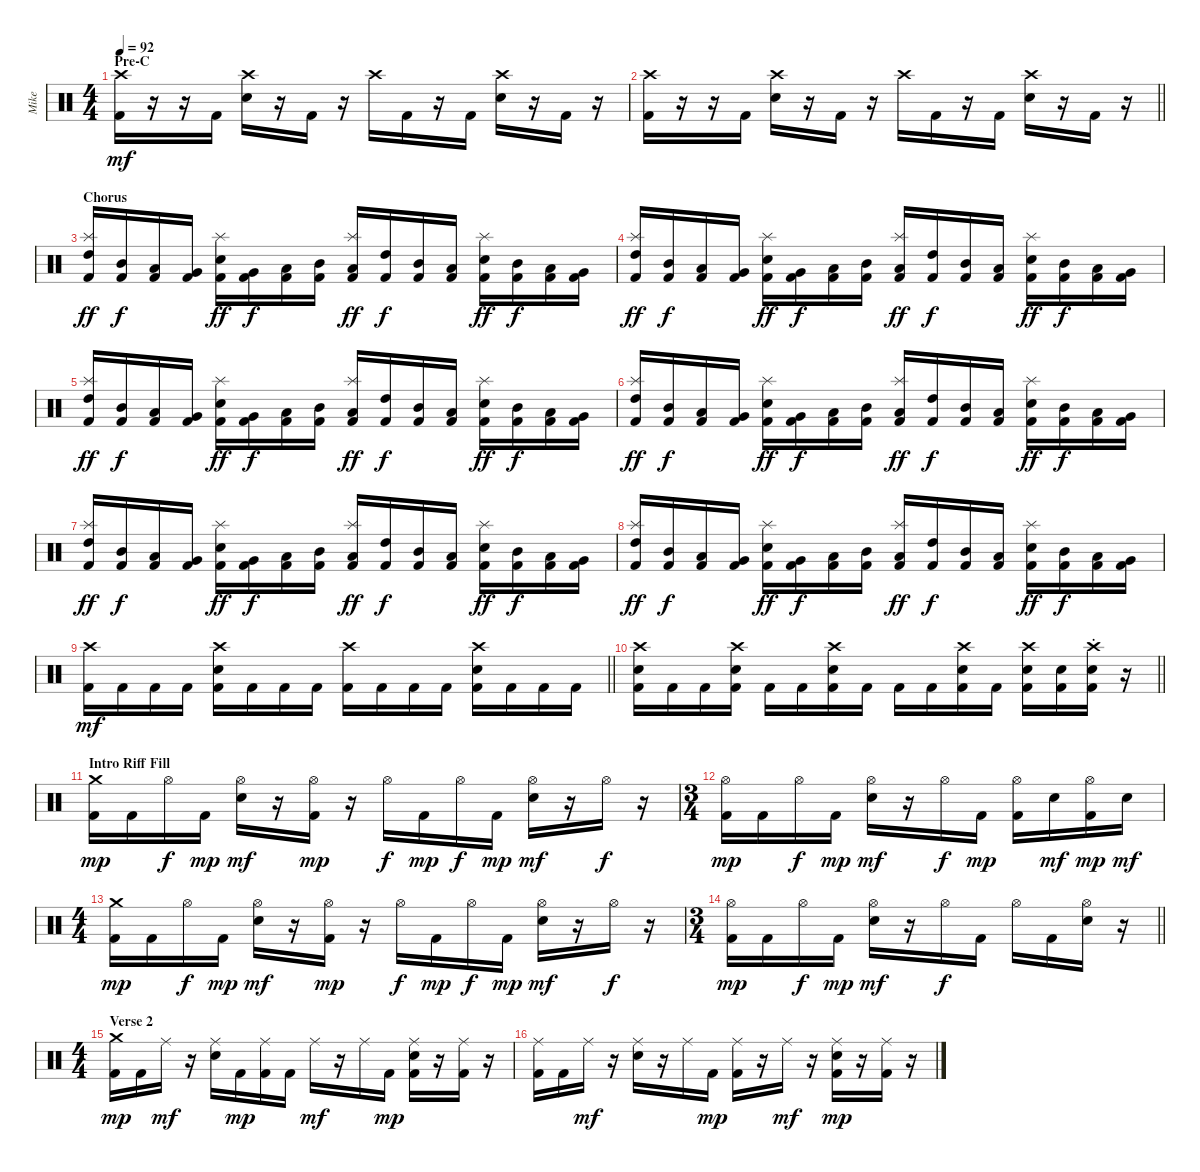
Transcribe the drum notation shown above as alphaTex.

\track ("Mike" "Mike") {instrument percussion}
\staff {score}
\articulation defaults
\ts (4 4)
\section ("" "Pre-C")
\tempo 92
\clef neutral
\ks c
("Crash high (hit)" "Kick (hit) 2").16{dy mf} r.16 r.16 "Kick (hit) 2".16 ("Crash high (hit)" "Snare (hit) 2").16 r.16 "Kick (hit) 2".16 r.16 "Crash high (hit)".16 "Kick (hit) 2".16 r.16 "Kick (hit) 2".16 ("Crash high (hit)" "Snare (hit) 2").16 r.16 "Kick (hit) 2".16 r.16 |
\barLineRight lightlight
("Crash high (hit)" "Kick (hit) 2").16 r.16 r.16 "Kick (hit) 2".16 ("Crash high (hit)" "Snare (hit) 2").16 r.16 "Kick (hit) 2".16 r.16 "Crash high (hit)".16 "Kick (hit) 2".16 r.16 "Kick (hit) 2".16 ("Crash high (hit)" "Snare (hit) 2").16 r.16 "Kick (hit) 2".16 r.16 |
\section ("" "Chorus")
("Splash (hit)" "High Tom (hit)" "Kick (hit) 2").16{dy ff} ("Mid Tom (hit)" "Kick (hit) 2").16{dy f} ("Low Tom (hit)" "Kick (hit) 2").16 ("Very Low Tom (hit)" "Kick (hit) 2").16 ("Splash (hit)" "Snare (hit) 2" "Kick (hit) 2").16{dy ff} ("Very Low Tom (hit)" "Kick (hit) 2").16{dy f} ("Low Tom (hit)" "Kick (hit) 2").16 ("Mid Tom (hit)" "Kick (hit) 2").16 ("Splash (hit)" "Low Tom (hit)" "Kick (hit) 2").16{dy ff} ("High Tom (hit)" "Kick (hit) 2").16{dy f} ("Mid Tom (hit)" "Kick (hit) 2").16 ("Low Tom (hit)" "Kick (hit) 2").16 ("Splash (hit)" "Snare (hit) 2" "Kick (hit) 2").16{dy ff} ("Mid Tom (hit)" "Kick (hit) 2").16{dy f} ("Low Tom (hit)" "Kick (hit) 2").16 ("Very Low Tom (hit)" "Kick (hit) 2").16 |
("Splash (hit)" "High Tom (hit)" "Kick (hit) 2").16{dy ff} ("Mid Tom (hit)" "Kick (hit) 2").16{dy f} ("Low Tom (hit)" "Kick (hit) 2").16 ("Very Low Tom (hit)" "Kick (hit) 2").16 ("Splash (hit)" "Snare (hit) 2" "Kick (hit) 2").16{dy ff} ("Very Low Tom (hit)" "Kick (hit) 2").16{dy f} ("Low Tom (hit)" "Kick (hit) 2").16 ("Mid Tom (hit)" "Kick (hit) 2").16 ("Splash (hit)" "Low Tom (hit)" "Kick (hit) 2").16{dy ff} ("High Tom (hit)" "Kick (hit) 2").16{dy f} ("Mid Tom (hit)" "Kick (hit) 2").16 ("Low Tom (hit)" "Kick (hit) 2").16 ("Splash (hit)" "Snare (hit) 2" "Kick (hit) 2").16{dy ff} ("Mid Tom (hit)" "Kick (hit) 2").16{dy f} ("Low Tom (hit)" "Kick (hit) 2").16 ("Very Low Tom (hit)" "Kick (hit) 2").16 |
("Splash (hit)" "High Tom (hit)" "Kick (hit) 2").16{dy ff} ("Mid Tom (hit)" "Kick (hit) 2").16{dy f} ("Low Tom (hit)" "Kick (hit) 2").16 ("Very Low Tom (hit)" "Kick (hit) 2").16 ("Splash (hit)" "Snare (hit) 2" "Kick (hit) 2").16{dy ff} ("Very Low Tom (hit)" "Kick (hit) 2").16{dy f} ("Low Tom (hit)" "Kick (hit) 2").16 ("Mid Tom (hit)" "Kick (hit) 2").16 ("Splash (hit)" "Low Tom (hit)" "Kick (hit) 2").16{dy ff} ("High Tom (hit)" "Kick (hit) 2").16{dy f} ("Mid Tom (hit)" "Kick (hit) 2").16 ("Low Tom (hit)" "Kick (hit) 2").16 ("Splash (hit)" "Snare (hit) 2" "Kick (hit) 2").16{dy ff} ("Mid Tom (hit)" "Kick (hit) 2").16{dy f} ("Low Tom (hit)" "Kick (hit) 2").16 ("Very Low Tom (hit)" "Kick (hit) 2").16 |
("Splash (hit)" "High Tom (hit)" "Kick (hit) 2").16{dy ff} ("Mid Tom (hit)" "Kick (hit) 2").16{dy f} ("Low Tom (hit)" "Kick (hit) 2").16 ("Very Low Tom (hit)" "Kick (hit) 2").16 ("Splash (hit)" "Snare (hit) 2" "Kick (hit) 2").16{dy ff} ("Very Low Tom (hit)" "Kick (hit) 2").16{dy f} ("Low Tom (hit)" "Kick (hit) 2").16 ("Mid Tom (hit)" "Kick (hit) 2").16 ("Splash (hit)" "Low Tom (hit)" "Kick (hit) 2").16{dy ff} ("High Tom (hit)" "Kick (hit) 2").16{dy f} ("Mid Tom (hit)" "Kick (hit) 2").16 ("Low Tom (hit)" "Kick (hit) 2").16 ("Splash (hit)" "Snare (hit) 2" "Kick (hit) 2").16{dy ff} ("Mid Tom (hit)" "Kick (hit) 2").16{dy f} ("Low Tom (hit)" "Kick (hit) 2").16 ("Very Low Tom (hit)" "Kick (hit) 2").16 |
("Splash (hit)" "High Tom (hit)" "Kick (hit) 2").16{dy ff} ("Mid Tom (hit)" "Kick (hit) 2").16{dy f} ("Low Tom (hit)" "Kick (hit) 2").16 ("Very Low Tom (hit)" "Kick (hit) 2").16 ("Splash (hit)" "Snare (hit) 2" "Kick (hit) 2").16{dy ff} ("Very Low Tom (hit)" "Kick (hit) 2").16{dy f} ("Low Tom (hit)" "Kick (hit) 2").16 ("Mid Tom (hit)" "Kick (hit) 2").16 ("Splash (hit)" "Low Tom (hit)" "Kick (hit) 2").16{dy ff} ("High Tom (hit)" "Kick (hit) 2").16{dy f} ("Mid Tom (hit)" "Kick (hit) 2").16 ("Low Tom (hit)" "Kick (hit) 2").16 ("Splash (hit)" "Snare (hit) 2" "Kick (hit) 2").16{dy ff} ("Mid Tom (hit)" "Kick (hit) 2").16{dy f} ("Low Tom (hit)" "Kick (hit) 2").16 ("Very Low Tom (hit)" "Kick (hit) 2").16 |
("Splash (hit)" "High Tom (hit)" "Kick (hit) 2").16{dy ff} ("Mid Tom (hit)" "Kick (hit) 2").16{dy f} ("Low Tom (hit)" "Kick (hit) 2").16 ("Very Low Tom (hit)" "Kick (hit) 2").16 ("Splash (hit)" "Snare (hit) 2" "Kick (hit) 2").16{dy ff} ("Very Low Tom (hit)" "Kick (hit) 2").16{dy f} ("Low Tom (hit)" "Kick (hit) 2").16 ("Mid Tom (hit)" "Kick (hit) 2").16 ("Splash (hit)" "Low Tom (hit)" "Kick (hit) 2").16{dy ff} ("High Tom (hit)" "Kick (hit) 2").16{dy f} ("Mid Tom (hit)" "Kick (hit) 2").16 ("Low Tom (hit)" "Kick (hit) 2").16 ("Splash (hit)" "Snare (hit) 2" "Kick (hit) 2").16{dy ff} ("Mid Tom (hit)" "Kick (hit) 2").16{dy f} ("Low Tom (hit)" "Kick (hit) 2").16 ("Very Low Tom (hit)" "Kick (hit) 2").16 |
\barLineRight lightlight
("Crash high (hit)" "Kick (hit) 2").16{dy mf} "Kick (hit) 2".16 "Kick (hit) 2".16 "Kick (hit) 2".16 ("Crash high (hit)" "Snare (hit) 2" "Kick (hit) 2").16 "Kick (hit) 2".16 "Kick (hit) 2".16 "Kick (hit) 2".16 ("Crash high (hit)" "Kick (hit) 2").16 "Kick (hit) 2".16 "Kick (hit) 2".16 "Kick (hit) 2".16 ("Crash high (hit)" "Snare (hit) 2" "Kick (hit) 2").16 "Kick (hit) 2".16 "Kick (hit) 2".16 "Kick (hit) 2".16 |
\barLineRight lightlight
("Crash high (hit)" "Snare (hit) 2" "Kick (hit) 2").16 "Kick (hit) 2".16 "Kick (hit) 2".16 ("Crash high (hit)" "Snare (hit) 2" "Kick (hit) 2").16 "Kick (hit) 2".16 "Kick (hit) 2".16 ("Crash high (hit)" "Snare (hit) 2" "Kick (hit) 2").16 "Kick (hit) 2".16 "Kick (hit) 2".16 "Kick (hit) 2".16 ("Crash high (hit)" "Snare (hit) 2" "Kick (hit) 2").16 "Kick (hit) 2".16 ("Crash high (hit)" "Snare (hit) 2" "Kick (hit) 2").16 ("Snare (hit) 2" "Kick (hit) 2").16 ("Crash high (hit)"{st} "Snare (hit) 2" "Kick (hit) 2").16 r.16 |
\section ("" "Intro Riff Fill")
("Crash medium (hit)" "Kick (hit) 2").16{dy mp} "Kick (hit) 2".16 "Hi-Hat (open)".16{dy f} "Kick (hit) 2".16{dy mp} ("Hi-Hat (open)" "Snare (hit) 2").16{dy mf} r.16 ("Hi-Hat (open)" "Kick (hit) 2").16{dy mp} r.16 "Hi-Hat (open)".16{dy f} "Kick (hit) 2".16{dy mp} "Hi-Hat (open)".16{dy f} "Kick (hit) 2".16{dy mp} ("Hi-Hat (open)" "Snare (hit) 2").16{dy mf} r.16 "Hi-Hat (open)".16{dy f} r.16 |
\ts (3 4)
("Hi-Hat (open)" "Kick (hit) 2").16{dy mp} "Kick (hit) 2".16 "Hi-Hat (open)".16{dy f} "Kick (hit) 2".16{dy mp} ("Hi-Hat (open)" "Snare (hit) 2").16{dy mf} r.16 "Hi-Hat (open)".16{dy f} "Kick (hit) 2".16{dy mp} ("Hi-Hat (open)" "Kick (hit) 2").16 "Snare (hit) 2".16{dy mf} ("Hi-Hat (open)" "Kick (hit) 2").16{dy mp} "Snare (hit) 2".16{dy mf} |
\ts (4 4)
("Crash medium (hit)" "Kick (hit) 2").16{dy mp} "Kick (hit) 2".16 "Hi-Hat (open)".16{dy f} "Kick (hit) 2".16{dy mp} ("Hi-Hat (open)" "Snare (hit) 2").16{dy mf} r.16 ("Hi-Hat (open)" "Kick (hit) 2").16{dy mp} r.16 "Hi-Hat (open)".16{dy f} "Kick (hit) 2".16{dy mp} "Hi-Hat (open)".16{dy f} "Kick (hit) 2".16{dy mp} ("Hi-Hat (open)" "Snare (hit) 2").16{dy mf} r.16 "Hi-Hat (open)".16{dy f} r.16 |
\ts (3 4)
\barLineRight lightlight
("Hi-Hat (open)" "Kick (hit) 2").16{dy mp} "Kick (hit) 2".16 "Hi-Hat (open)".16{dy f} "Kick (hit) 2".16{dy mp} ("Hi-Hat (open)" "Snare (hit) 2").16{dy mf} r.16 "Hi-Hat (open)".16{dy f} "Kick (hit) 2".16 "Hi-Hat (open)".16 "Kick (hit) 2".16 ("Hi-Hat (open)" "Snare (hit) 2").16 r.16 |
\ts (4 4)
\section ("" "Verse 2")
("Crash medium (hit)" "Kick (hit) 2").16{dy mp} "Kick (hit) 2".16 "Ride (middle)".16{dy mf} r.16 ("Ride (middle)" "Snare (hit) 2").16 "Kick (hit) 2".16{dy mp} ("Ride (middle)" "Kick (hit) 2").16 "Kick (hit) 2".16 "Ride (middle)".16{dy mf} r.16 "Ride (middle)".16 "Kick (hit) 2".16{dy mp} ("Ride (middle)" "Snare (hit) 2" "Kick (hit) 2").16 r.16 ("Ride (middle)" "Kick (hit) 2").16 r.16 |
("Ride (middle)" "Kick (hit) 2").16 "Kick (hit) 2".16 "Ride (middle)".16{dy mf} r.16 ("Ride (middle)" "Snare (hit) 2").16 r.16 "Ride (middle)".16 "Kick (hit) 2".16{dy mp} ("Ride (middle)" "Kick (hit) 2").16 r.16 "Ride (middle)".16{dy mf} r.16 ("Ride (middle)" "Snare (hit) 2" "Kick (hit) 2").16{dy mp} r.16 ("Ride (middle)" "Kick (hit) 2").16 r.16
